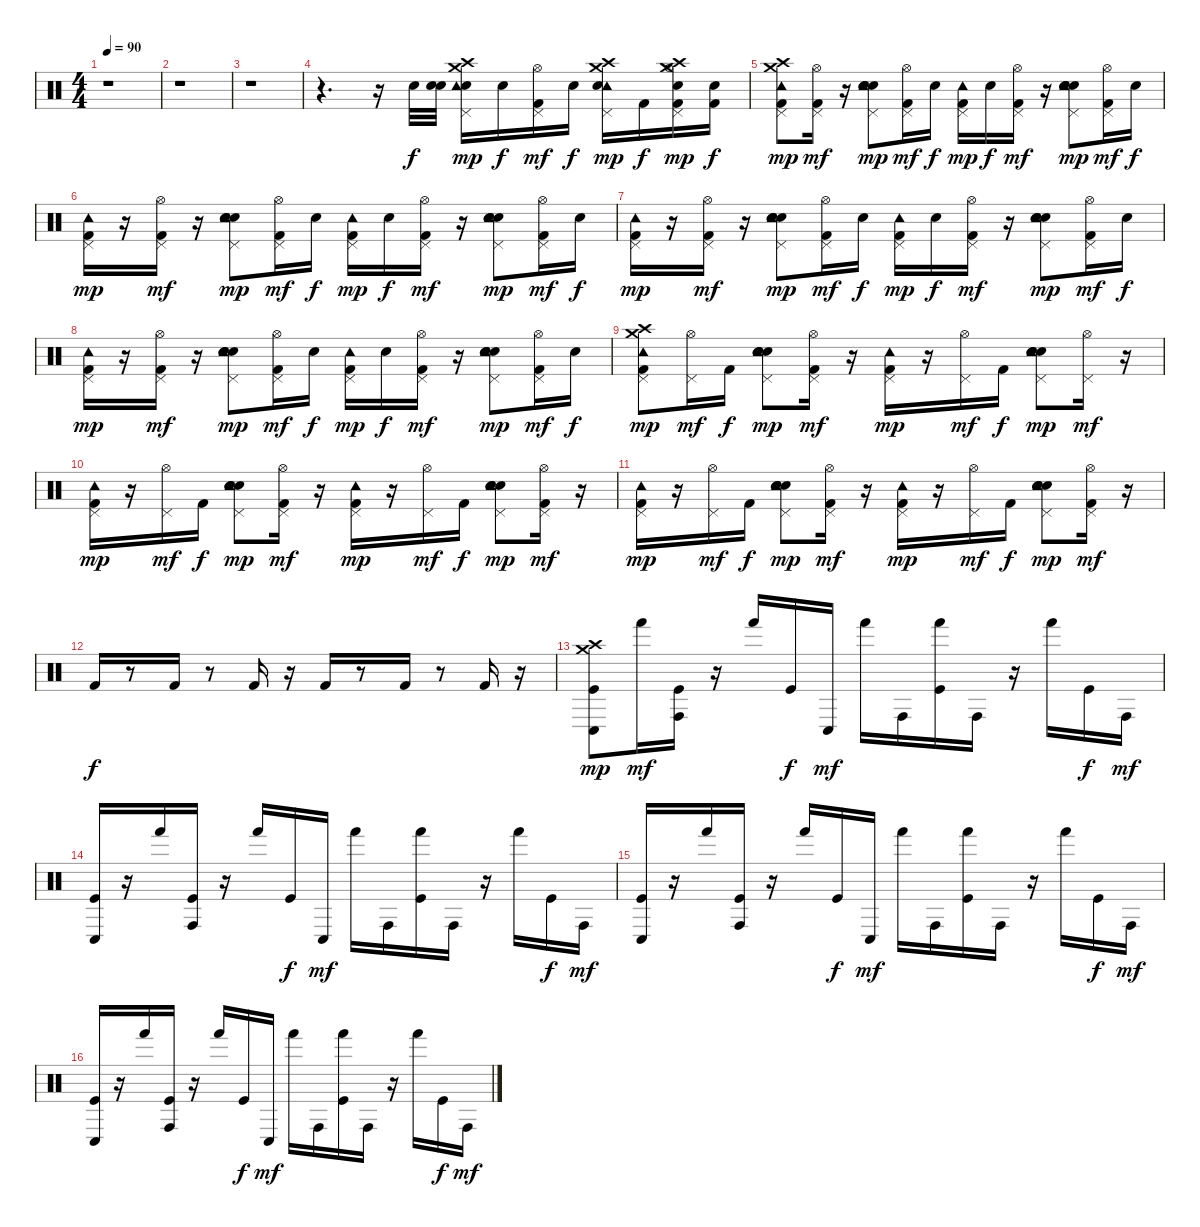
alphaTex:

\track "" {instrument percussion}
\staff {score}
\articulation defaults
\ts (4 4)
\tempo 90
\clef neutral
\ks c
r.1{dy f} |
r.1 |
r.1 |
r.4{d} r.16 "Electric Snare (hit)".32 ("Electric Snare (hit)" "Electric Snare (hit)").32 ("Crash high (hit)" "Crash medium (hit)" "Electric Snare (hit)" "Tambourine (hit)" "Pedal Hi-Hat (hit)").16{dy mp} "Electric Snare (hit)".16{dy f} ("Kick (hit) 2" "Hi-Hat (open)" "Pedal Hi-Hat (hit)").16{dy mf} "Electric Snare (hit)".16{dy f} ("Crash high (hit)" "Crash medium (hit)" "Tambourine (hit)" "Pedal Hi-Hat (hit)" "Electric Snare (hit)").16{dy mp} "Kick (hit) 2".16{dy f} ("Kick (hit) 2" "Hi-Hat (open)" "Pedal Hi-Hat (hit)" "Crash high (hit)" "Crash medium (hit)" "Electric Snare (hit)").16{dy mp} ("Kick (hit) 2" "Electric Snare (hit)").16{dy f} |
("Kick (hit) 2" "Tambourine (hit)" "Crash high (hit)" "Crash medium (hit)" "Pedal Hi-Hat (hit)").8{dy mp} ("Kick (hit) 2" "Hi-Hat (open)" "Pedal Hi-Hat (hit)").16{dy mf} r.16 ("Electric Snare (hit)" "Snare (hit) 2" "Hand Clap (hit)" "Tambourine (hit)" "Pedal Hi-Hat (hit)").8{dy mp} ("Kick (hit) 2" "Hi-Hat (open)" "Pedal Hi-Hat (hit)").16{dy mf} "Snare (hit) 2".16{dy f} ("Kick (hit) 2" "Tambourine (hit)" "Pedal Hi-Hat (hit)").16{dy mp} "Snare (hit) 2".16{dy f} ("Kick (hit) 2" "Hi-Hat (open)" "Pedal Hi-Hat (hit)").16{dy mf} r.16 ("Electric Snare (hit)" "Snare (hit) 2" "Hand Clap (hit)" "Tambourine (hit)" "Pedal Hi-Hat (hit)").8{dy mp} ("Kick (hit) 2" "Hi-Hat (open)" "Pedal Hi-Hat (hit)").16{dy mf} "Snare (hit) 2".16{dy f} |
("Kick (hit) 2" "Tambourine (hit)" "Pedal Hi-Hat (hit)").16{dy mp} r.16 ("Kick (hit) 2" "Hi-Hat (open)" "Pedal Hi-Hat (hit)").16{dy mf} r.16 ("Electric Snare (hit)" "Hand Clap (hit)" "Snare (hit) 2" "Tambourine (hit)" "Pedal Hi-Hat (hit)").8{dy mp} ("Kick (hit) 2" "Hi-Hat (open)" "Pedal Hi-Hat (hit)").16{dy mf} "Snare (hit) 2".16{dy f} ("Kick (hit) 2" "Tambourine (hit)" "Pedal Hi-Hat (hit)").16{dy mp} "Snare (hit) 2".16{dy f} ("Kick (hit) 2" "Hi-Hat (open)" "Pedal Hi-Hat (hit)").16{dy mf} r.16 ("Electric Snare (hit)" "Hand Clap (hit)" "Snare (hit) 2" "Tambourine (hit)" "Pedal Hi-Hat (hit)").8{dy mp} ("Kick (hit) 2" "Hi-Hat (open)" "Pedal Hi-Hat (hit)").16{dy mf} "Snare (hit) 2".16{dy f} |
("Kick (hit) 2" "Tambourine (hit)" "Pedal Hi-Hat (hit)").16{dy mp} r.16 ("Kick (hit) 2" "Hi-Hat (open)" "Pedal Hi-Hat (hit)").16{dy mf} r.16 ("Electric Snare (hit)" "Hand Clap (hit)" "Snare (hit) 2" "Tambourine (hit)" "Pedal Hi-Hat (hit)").8{dy mp} ("Kick (hit) 2" "Hi-Hat (open)" "Pedal Hi-Hat (hit)").16{dy mf} "Snare (hit) 2".16{dy f} ("Kick (hit) 2" "Tambourine (hit)" "Pedal Hi-Hat (hit)").16{dy mp} "Snare (hit) 2".16{dy f} ("Kick (hit) 2" "Hi-Hat (open)" "Pedal Hi-Hat (hit)").16{dy mf} r.16 ("Electric Snare (hit)" "Hand Clap (hit)" "Snare (hit) 2" "Tambourine (hit)" "Pedal Hi-Hat (hit)").8{dy mp} ("Kick (hit) 2" "Hi-Hat (open)" "Pedal Hi-Hat (hit)").16{dy mf} "Snare (hit) 2".16{dy f} |
("Kick (hit) 2" "Tambourine (hit)" "Pedal Hi-Hat (hit)").16{dy mp} r.16 ("Kick (hit) 2" "Hi-Hat (open)" "Pedal Hi-Hat (hit)").16{dy mf} r.16 ("Electric Snare (hit)" "Hand Clap (hit)" "Snare (hit) 2" "Tambourine (hit)" "Pedal Hi-Hat (hit)").8{dy mp} ("Kick (hit) 2" "Hi-Hat (open)" "Pedal Hi-Hat (hit)").16{dy mf} "Snare (hit) 2".16{dy f} ("Kick (hit) 2" "Tambourine (hit)" "Pedal Hi-Hat (hit)").16{dy mp} "Snare (hit) 2".16{dy f} ("Kick (hit) 2" "Hi-Hat (open)" "Pedal Hi-Hat (hit)").16{dy mf} r.16 ("Electric Snare (hit)" "Hand Clap (hit)" "Snare (hit) 2" "Tambourine (hit)" "Pedal Hi-Hat (hit)").8{dy mp} ("Kick (hit) 2" "Hi-Hat (open)" "Pedal Hi-Hat (hit)").16{dy mf} "Snare (hit) 2".16{dy f} |
("Kick (hit) 2" "Tambourine (hit)" "Crash high (hit)" "Crash medium (hit)" "Pedal Hi-Hat (hit)").8{dy mp} ("Hi-Hat (open)" "Pedal Hi-Hat (hit)").16{dy mf} "Kick (hit) 2".16{dy f} ("Electric Snare (hit)" "Snare (hit) 2" "Hand Clap (hit)" "Tambourine (hit)" "Pedal Hi-Hat (hit)").8{dy mp} ("Kick (hit) 2" "Hi-Hat (open)" "Pedal Hi-Hat (hit)").16{dy mf} r.16 ("Kick (hit) 2" "Tambourine (hit)" "Pedal Hi-Hat (hit)").16{dy mp} r.16 ("Hi-Hat (open)" "Pedal Hi-Hat (hit)").16{dy mf} "Kick (hit) 2".16{dy f} ("Electric Snare (hit)" "Snare (hit) 2" "Hand Clap (hit)" "Tambourine (hit)" "Pedal Hi-Hat (hit)").8{dy mp} ("Hi-Hat (open)" "Pedal Hi-Hat (hit)").16{dy mf} r.16 |
("Kick (hit) 2" "Tambourine (hit)" "Pedal Hi-Hat (hit)").16{dy mp} r.16 ("Hi-Hat (open)" "Pedal Hi-Hat (hit)").16{dy mf} "Kick (hit) 2".16{dy f} ("Electric Snare (hit)" "Hand Clap (hit)" "Snare (hit) 2" "Tambourine (hit)" "Pedal Hi-Hat (hit)").8{dy mp} ("Kick (hit) 2" "Hi-Hat (open)" "Pedal Hi-Hat (hit)").16{dy mf} r.16 ("Kick (hit) 2" "Tambourine (hit)" "Pedal Hi-Hat (hit)").16{dy mp} r.16 ("Hi-Hat (open)" "Pedal Hi-Hat (hit)").16{dy mf} "Kick (hit) 2".16{dy f} ("Electric Snare (hit)" "Hand Clap (hit)" "Snare (hit) 2" "Tambourine (hit)" "Pedal Hi-Hat (hit)").8{dy mp} ("Kick (hit) 2" "Hi-Hat (open)" "Pedal Hi-Hat (hit)").16{dy mf} r.16 |
("Kick (hit) 2" "Tambourine (hit)" "Pedal Hi-Hat (hit)").16{dy mp} r.16 ("Hi-Hat (open)" "Pedal Hi-Hat (hit)").16{dy mf} "Kick (hit) 2".16{dy f} ("Electric Snare (hit)" "Hand Clap (hit)" "Snare (hit) 2" "Tambourine (hit)" "Pedal Hi-Hat (hit)").8{dy mp} ("Kick (hit) 2" "Hi-Hat (open)" "Pedal Hi-Hat (hit)").16{dy mf} r.16 ("Kick (hit) 2" "Tambourine (hit)" "Pedal Hi-Hat (hit)").16{dy mp} r.16 ("Hi-Hat (open)" "Pedal Hi-Hat (hit)").16{dy mf} "Kick (hit) 2".16{dy f} ("Electric Snare (hit)" "Hand Clap (hit)" "Snare (hit) 2" "Tambourine (hit)" "Pedal Hi-Hat (hit)").8{dy mp} ("Kick (hit) 2" "Hi-Hat (open)" "Pedal Hi-Hat (hit)").16{dy mf} r.16 |
"Kick (hit) 2".16{dy f} r.8 "Kick (hit) 2".16 r.8 "Kick (hit) 2".16 r.16 "Kick (hit) 2".16 r.8 "Kick (hit) 2".16 r.8 "Kick (hit) 2".16 r.16 |
("Conga low (hit)" "Kick (hit)" "Crash high (hit)" "Crash medium (hit)").8{dy mp} "Hand (hit)".16{dy mf} ("Conga high (hit)" "Kick (hit)").16 r.16 "Hand (hit)".16 "Kick (hit)".16{dy f} "Conga low (hit)".16{dy mf} "Hand (hit)".16 "Conga high (hit)".16 ("Kick (hit)" "Hand (hit)").16 "Conga high (hit)".16 r.16 "Hand (hit)".16 "Kick (hit)".16{dy f} "Conga high (hit)".16{dy mf} |
("Conga low (hit)" "Kick (hit)").16 r.16 "Hand (hit)".16 ("Conga high (hit)" "Kick (hit)").16 r.16 "Hand (hit)".16 "Kick (hit)".16{dy f} "Conga low (hit)".16{dy mf} "Hand (hit)".16 "Conga high (hit)".16 ("Kick (hit)" "Hand (hit)").16 "Conga high (hit)".16 r.16 "Hand (hit)".16 "Kick (hit)".16{dy f} "Conga high (hit)".16{dy mf} |
("Conga low (hit)" "Kick (hit)").16 r.16 "Hand (hit)".16 ("Conga high (hit)" "Kick (hit)").16 r.16 "Hand (hit)".16 "Kick (hit)".16{dy f} "Conga low (hit)".16{dy mf} "Hand (hit)".16 "Conga high (hit)".16 ("Kick (hit)" "Hand (hit)").16 "Conga high (hit)".16 r.16 "Hand (hit)".16 "Kick (hit)".16{dy f} "Conga high (hit)".16{dy mf} |
("Conga low (hit)" "Kick (hit)").16 r.16 "Hand (hit)".16 ("Conga high (hit)" "Kick (hit)").16 r.16 "Hand (hit)".16 "Kick (hit)".16{dy f} "Conga low (hit)".16{dy mf} "Hand (hit)".16 "Conga high (hit)".16 ("Kick (hit)" "Hand (hit)").16 "Conga high (hit)".16 r.16 "Hand (hit)".16 "Kick (hit)".16{dy f} "Conga high (hit)".16{dy mf}
